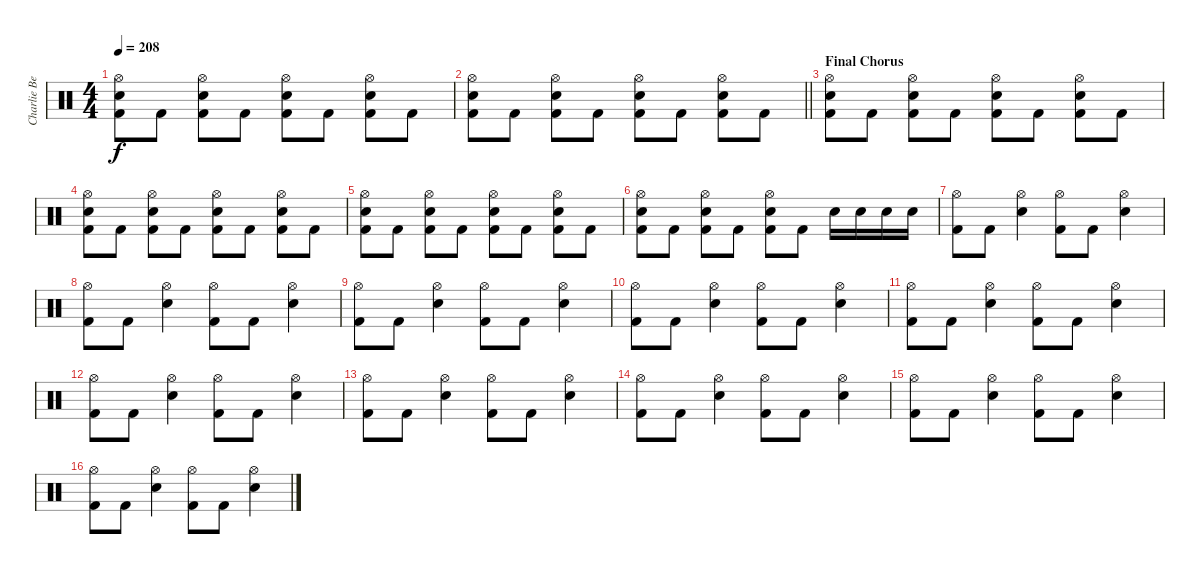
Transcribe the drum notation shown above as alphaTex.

\track ("Charlie Benate" "Charlie Be") {instrument percussion}
\staff {score}
\articulation defaults
\ts (4 4)
\tempo 208
\clef neutral
\ks c
("Hi-Hat (open)" "Electric Snare (hit)" "Kick (hit) 2").8{dy f} "Kick (hit) 2".8 ("Hi-Hat (open)" "Electric Snare (hit)" "Kick (hit) 2").8 "Kick (hit) 2".8 ("Hi-Hat (open)" "Electric Snare (hit)" "Kick (hit) 2").8 "Kick (hit) 2".8 ("Hi-Hat (open)" "Electric Snare (hit)" "Kick (hit) 2").8 "Kick (hit) 2".8 |
\barLineRight lightlight
("Hi-Hat (open)" "Electric Snare (hit)" "Kick (hit) 2").8 "Kick (hit) 2".8 ("Hi-Hat (open)" "Electric Snare (hit)" "Kick (hit) 2").8 "Kick (hit) 2".8 ("Hi-Hat (open)" "Electric Snare (hit)" "Kick (hit) 2").8 "Kick (hit) 2".8 ("Hi-Hat (open)" "Electric Snare (hit)" "Kick (hit) 2").8 "Kick (hit) 2".8 |
\section ("" "Final Chorus")
("Hi-Hat (open)" "Electric Snare (hit)" "Kick (hit) 2").8 "Kick (hit) 2".8 ("Hi-Hat (open)" "Electric Snare (hit)" "Kick (hit) 2").8 "Kick (hit) 2".8 ("Hi-Hat (open)" "Electric Snare (hit)" "Kick (hit) 2").8 "Kick (hit) 2".8 ("Hi-Hat (open)" "Electric Snare (hit)" "Kick (hit) 2").8 "Kick (hit) 2".8 |
("Hi-Hat (open)" "Electric Snare (hit)" "Kick (hit) 2").8 "Kick (hit) 2".8 ("Hi-Hat (open)" "Electric Snare (hit)" "Kick (hit) 2").8 "Kick (hit) 2".8 ("Hi-Hat (open)" "Electric Snare (hit)" "Kick (hit) 2").8 "Kick (hit) 2".8 ("Hi-Hat (open)" "Electric Snare (hit)" "Kick (hit) 2").8 "Kick (hit) 2".8 |
("Hi-Hat (open)" "Electric Snare (hit)" "Kick (hit) 2").8 "Kick (hit) 2".8 ("Hi-Hat (open)" "Electric Snare (hit)" "Kick (hit) 2").8 "Kick (hit) 2".8 ("Hi-Hat (open)" "Electric Snare (hit)" "Kick (hit) 2").8 "Kick (hit) 2".8 ("Hi-Hat (open)" "Electric Snare (hit)" "Kick (hit) 2").8 "Kick (hit) 2".8 |
("Hi-Hat (open)" "Electric Snare (hit)" "Kick (hit) 2").8 "Kick (hit) 2".8 ("Hi-Hat (open)" "Electric Snare (hit)" "Kick (hit) 2").8 "Kick (hit) 2".8 ("Hi-Hat (open)" "Electric Snare (hit)" "Kick (hit) 2").8 "Kick (hit) 2".8 "Electric Snare (hit)".16 "Electric Snare (hit)".16 "Electric Snare (hit)".16 "Electric Snare (hit)".16 |
("Hi-Hat (open)" "Kick (hit) 2").8 "Kick (hit) 2".8 ("Hi-Hat (open)" "Electric Snare (hit)").4 ("Hi-Hat (open)" "Kick (hit) 2").8 "Kick (hit) 2".8 ("Hi-Hat (open)" "Electric Snare (hit)").4 |
("Hi-Hat (open)" "Kick (hit) 2").8 "Kick (hit) 2".8 ("Hi-Hat (open)" "Electric Snare (hit)").4 ("Hi-Hat (open)" "Kick (hit) 2").8 "Kick (hit) 2".8 ("Hi-Hat (open)" "Electric Snare (hit)").4 |
("Hi-Hat (open)" "Kick (hit) 2").8 "Kick (hit) 2".8 ("Hi-Hat (open)" "Electric Snare (hit)").4 ("Hi-Hat (open)" "Kick (hit) 2").8 "Kick (hit) 2".8 ("Hi-Hat (open)" "Electric Snare (hit)").4 |
("Hi-Hat (open)" "Kick (hit) 2").8 "Kick (hit) 2".8 ("Hi-Hat (open)" "Electric Snare (hit)").4 ("Hi-Hat (open)" "Kick (hit) 2").8 "Kick (hit) 2".8 ("Hi-Hat (open)" "Electric Snare (hit)").4 |
("Hi-Hat (open)" "Kick (hit) 2").8 "Kick (hit) 2".8 ("Hi-Hat (open)" "Electric Snare (hit)").4 ("Hi-Hat (open)" "Kick (hit) 2").8 "Kick (hit) 2".8 ("Hi-Hat (open)" "Electric Snare (hit)").4 |
("Hi-Hat (open)" "Kick (hit) 2").8 "Kick (hit) 2".8 ("Hi-Hat (open)" "Electric Snare (hit)").4 ("Hi-Hat (open)" "Kick (hit) 2").8 "Kick (hit) 2".8 ("Hi-Hat (open)" "Electric Snare (hit)").4 |
("Hi-Hat (open)" "Kick (hit) 2").8 "Kick (hit) 2".8 ("Hi-Hat (open)" "Electric Snare (hit)").4 ("Hi-Hat (open)" "Kick (hit) 2").8 "Kick (hit) 2".8 ("Hi-Hat (open)" "Electric Snare (hit)").4 |
("Hi-Hat (open)" "Kick (hit) 2").8 "Kick (hit) 2".8 ("Hi-Hat (open)" "Electric Snare (hit)").4 ("Hi-Hat (open)" "Kick (hit) 2").8 "Kick (hit) 2".8 ("Hi-Hat (open)" "Electric Snare (hit)").4 |
("Hi-Hat (open)" "Kick (hit) 2").8 "Kick (hit) 2".8 ("Hi-Hat (open)" "Electric Snare (hit)").4 ("Hi-Hat (open)" "Kick (hit) 2").8 "Kick (hit) 2".8 ("Hi-Hat (open)" "Electric Snare (hit)").4 |
("Hi-Hat (open)" "Kick (hit) 2").8 "Kick (hit) 2".8 ("Hi-Hat (open)" "Electric Snare (hit)").4 ("Hi-Hat (open)" "Kick (hit) 2").8 "Kick (hit) 2".8 ("Hi-Hat (open)" "Electric Snare (hit)").4
